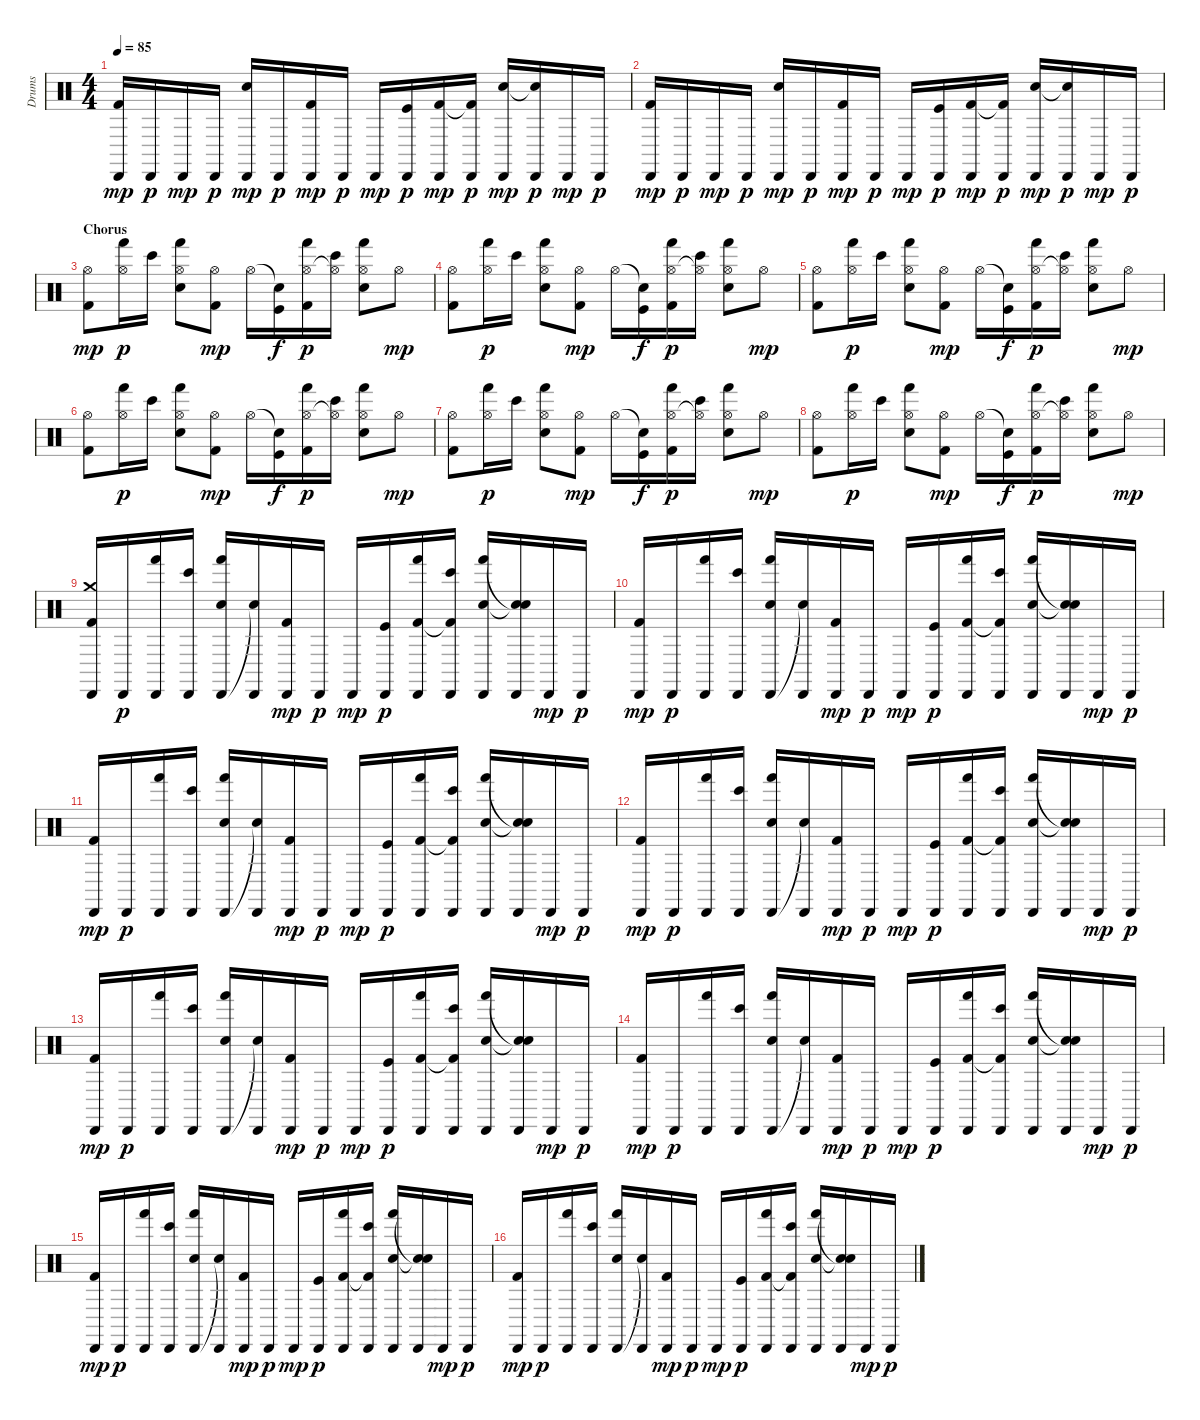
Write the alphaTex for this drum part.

\track ("Drums" "Drums") {instrument percussion}
\staff {score}
\articulation defaults
\ts (4 4)
\tempo 85
\clef neutral
\ks c
("Kick (hit) 2" "Cabasa (hit)").16{dy mp} "Cabasa (hit)".16{dy p} "Cabasa (hit)".16{dy mp} "Cabasa (hit)".16{dy p} ("Snare (hit) 2" "Cabasa (hit)").16{dy mp} "Cabasa (hit)".16{dy p} ("Kick (hit) 2" "Cabasa (hit)").16{dy mp} "Cabasa (hit)".16{dy p} "Cabasa (hit)".16{dy mp} ("Cabasa (hit)" "Kick (hit)").16{dy p} ("Kick (hit) 2" "Cabasa (hit)").16{dy mp} ("Kick (hit) 2"{t} "Cabasa (hit)").16{dy p} ("Snare (hit) 2" "Cabasa (hit)").16{dy mp} ("Snare (hit) 2"{t} "Cabasa (hit)").16{dy p} "Cabasa (hit)".16{dy mp} "Cabasa (hit)".16{dy p} |
("Kick (hit) 2" "Cabasa (hit)").16{dy mp} "Cabasa (hit)".16{dy p} "Cabasa (hit)".16{dy mp} "Cabasa (hit)".16{dy p} ("Snare (hit) 2" "Cabasa (hit)").16{dy mp} "Cabasa (hit)".16{dy p} ("Kick (hit) 2" "Cabasa (hit)").16{dy mp} "Cabasa (hit)".16{dy p} "Cabasa (hit)".16{dy mp} ("Cabasa (hit)" "Kick (hit)").16{dy p} ("Kick (hit) 2" "Cabasa (hit)").16{dy mp} ("Kick (hit) 2"{t} "Cabasa (hit)").16{dy p} ("Snare (hit) 2" "Cabasa (hit)").16{dy mp} ("Snare (hit) 2"{t} "Cabasa (hit)").16{dy p} "Cabasa (hit)".16{dy mp} "Cabasa (hit)".16{dy p} |
\section ("" "Chorus")
("Hi-Hat (open)" "Kick (hit) 2").8{dy mp} ("Hi-Hat (open)" "Hand (hit)").16{dy p} "Bongo High (hit)".16 ("Hi-Hat (open)" "Snare (hit) 2" "Hand (hit)").8 ("Hi-Hat (open)" "Kick (hit) 2").8{dy mp} "Hi-Hat (open)".16 ("Snare (hit)"{t} "Kick (hit)").16{dy f} ("Hi-Hat (open)" "Kick (hit) 2" "Hand (hit)").16{dy p} ("Hi-Hat (open)"{t} "Bongo High (hit)").16 ("Hi-Hat (open)" "Snare (hit) 2" "Hand (hit)").8 "Hi-Hat (open)".8{dy mp} |
("Hi-Hat (open)" "Kick (hit) 2").8 ("Hi-Hat (open)" "Hand (hit)").16{dy p} "Bongo High (hit)".16 ("Hi-Hat (open)" "Snare (hit) 2" "Hand (hit)").8 ("Hi-Hat (open)" "Kick (hit) 2").8{dy mp} "Hi-Hat (open)".16 ("Snare (hit)"{t} "Kick (hit)").16{dy f} ("Hi-Hat (open)" "Kick (hit) 2" "Hand (hit)").16{dy p} ("Hi-Hat (open)"{t} "Bongo High (hit)").16 ("Hi-Hat (open)" "Snare (hit) 2" "Hand (hit)").8 "Hi-Hat (open)".8{dy mp} |
("Hi-Hat (open)" "Kick (hit) 2").8 ("Hi-Hat (open)" "Hand (hit)").16{dy p} "Bongo High (hit)".16 ("Hi-Hat (open)" "Snare (hit) 2" "Hand (hit)").8 ("Hi-Hat (open)" "Kick (hit) 2").8{dy mp} "Hi-Hat (open)".16 ("Snare (hit)"{t} "Kick (hit)").16{dy f} ("Hi-Hat (open)" "Kick (hit) 2" "Hand (hit)").16{dy p} ("Hi-Hat (open)"{t} "Bongo High (hit)").16 ("Hi-Hat (open)" "Snare (hit) 2" "Hand (hit)").8 "Hi-Hat (open)".8{dy mp} |
("Hi-Hat (open)" "Kick (hit) 2").8 ("Hi-Hat (open)" "Hand (hit)").16{dy p} "Bongo High (hit)".16 ("Hi-Hat (open)" "Snare (hit) 2" "Hand (hit)").8 ("Hi-Hat (open)" "Kick (hit) 2").8{dy mp} "Hi-Hat (open)".16 ("Snare (hit)"{t} "Kick (hit)").16{dy f} ("Hi-Hat (open)" "Kick (hit) 2" "Hand (hit)").16{dy p} ("Hi-Hat (open)"{t} "Bongo High (hit)").16 ("Hi-Hat (open)" "Snare (hit) 2" "Hand (hit)").8 "Hi-Hat (open)".8{dy mp} |
("Hi-Hat (open)" "Kick (hit) 2").8 ("Hi-Hat (open)" "Hand (hit)").16{dy p} "Bongo High (hit)".16 ("Hi-Hat (open)" "Snare (hit) 2" "Hand (hit)").8 ("Hi-Hat (open)" "Kick (hit) 2").8{dy mp} "Hi-Hat (open)".16 ("Snare (hit)"{t} "Kick (hit)").16{dy f} ("Hi-Hat (open)" "Kick (hit) 2" "Hand (hit)").16{dy p} ("Hi-Hat (open)"{t} "Bongo High (hit)").16 ("Hi-Hat (open)" "Snare (hit) 2" "Hand (hit)").8 "Hi-Hat (open)".8{dy mp} |
("Hi-Hat (open)" "Kick (hit) 2").8 ("Hi-Hat (open)" "Hand (hit)").16{dy p} "Bongo High (hit)".16 ("Hi-Hat (open)" "Snare (hit) 2" "Hand (hit)").8 ("Hi-Hat (open)" "Kick (hit) 2").8{dy mp} "Hi-Hat (open)".16 ("Snare (hit)"{t} "Kick (hit)").16{dy f} ("Hi-Hat (open)" "Kick (hit) 2" "Hand (hit)").16{dy p} ("Hi-Hat (open)"{t} "Bongo High (hit)").16 ("Hi-Hat (open)" "Snare (hit) 2" "Hand (hit)").8 "Hi-Hat (open)".8{dy mp} |
("Kick (hit) 2" "Cabasa (hit)" "Crash medium (hit)").16 "Cabasa (hit)".16{dy p} ("Cabasa (hit)" "Hand (hit)").16 ("Cabasa (hit)" "Bongo High (hit)").16 ("Snare (hit) 2" "Cabasa (hit)" "Hand (hit)").16 ("Cabasa (hit)" "Snare (hit)"{t}).16 ("Kick (hit) 2" "Cabasa (hit)").16{dy mp} "Cabasa (hit)".16{dy p} "Cabasa (hit)".16{dy mp} ("Cabasa (hit)" "Kick (hit)").16{dy p} ("Kick (hit) 2" "Cabasa (hit)" "Hand (hit)").16 ("Kick (hit) 2"{t} "Cabasa (hit)" "Bongo High (hit)").16 ("Snare (hit) 2" "Cabasa (hit)" "Hand (hit)").16 ("Snare (hit) 2"{t} "Cabasa (hit)" "Snare (hit)"{t}).16 "Cabasa (hit)".16{dy mp} "Cabasa (hit)".16{dy p} |
("Kick (hit) 2" "Cabasa (hit)").16{dy mp} "Cabasa (hit)".16{dy p} ("Cabasa (hit)" "Hand (hit)").16 ("Cabasa (hit)" "Bongo High (hit)").16 ("Snare (hit) 2" "Cabasa (hit)" "Hand (hit)").16 ("Cabasa (hit)" "Snare (hit)"{t}).16 ("Kick (hit) 2" "Cabasa (hit)").16{dy mp} "Cabasa (hit)".16{dy p} "Cabasa (hit)".16{dy mp} ("Cabasa (hit)" "Kick (hit)").16{dy p} ("Kick (hit) 2" "Cabasa (hit)" "Hand (hit)").16 ("Kick (hit) 2"{t} "Cabasa (hit)" "Bongo High (hit)").16 ("Snare (hit) 2" "Cabasa (hit)" "Hand (hit)").16 ("Snare (hit) 2"{t} "Cabasa (hit)" "Snare (hit)"{t}).16 "Cabasa (hit)".16{dy mp} "Cabasa (hit)".16{dy p} |
("Kick (hit) 2" "Cabasa (hit)").16{dy mp} "Cabasa (hit)".16{dy p} ("Cabasa (hit)" "Hand (hit)").16 ("Cabasa (hit)" "Bongo High (hit)").16 ("Snare (hit) 2" "Cabasa (hit)" "Hand (hit)").16 ("Cabasa (hit)" "Snare (hit)"{t}).16 ("Kick (hit) 2" "Cabasa (hit)").16{dy mp} "Cabasa (hit)".16{dy p} "Cabasa (hit)".16{dy mp} ("Cabasa (hit)" "Kick (hit)").16{dy p} ("Kick (hit) 2" "Cabasa (hit)" "Hand (hit)").16 ("Kick (hit) 2"{t} "Cabasa (hit)" "Bongo High (hit)").16 ("Snare (hit) 2" "Cabasa (hit)" "Hand (hit)").16 ("Snare (hit) 2"{t} "Cabasa (hit)" "Snare (hit)"{t}).16 "Cabasa (hit)".16{dy mp} "Cabasa (hit)".16{dy p} |
("Kick (hit) 2" "Cabasa (hit)").16{dy mp} "Cabasa (hit)".16{dy p} ("Cabasa (hit)" "Hand (hit)").16 ("Cabasa (hit)" "Bongo High (hit)").16 ("Snare (hit) 2" "Cabasa (hit)" "Hand (hit)").16 ("Cabasa (hit)" "Snare (hit)"{t}).16 ("Kick (hit) 2" "Cabasa (hit)").16{dy mp} "Cabasa (hit)".16{dy p} "Cabasa (hit)".16{dy mp} ("Cabasa (hit)" "Kick (hit)").16{dy p} ("Kick (hit) 2" "Cabasa (hit)" "Hand (hit)").16 ("Kick (hit) 2"{t} "Cabasa (hit)" "Bongo High (hit)").16 ("Snare (hit) 2" "Cabasa (hit)" "Hand (hit)").16 ("Snare (hit) 2"{t} "Cabasa (hit)" "Snare (hit)"{t}).16 "Cabasa (hit)".16{dy mp} "Cabasa (hit)".16{dy p} |
("Kick (hit) 2" "Cabasa (hit)").16{dy mp} "Cabasa (hit)".16{dy p} ("Cabasa (hit)" "Hand (hit)").16 ("Cabasa (hit)" "Bongo High (hit)").16 ("Snare (hit) 2" "Cabasa (hit)" "Hand (hit)").16 ("Cabasa (hit)" "Snare (hit)"{t}).16 ("Kick (hit) 2" "Cabasa (hit)").16{dy mp} "Cabasa (hit)".16{dy p} "Cabasa (hit)".16{dy mp} ("Cabasa (hit)" "Kick (hit)").16{dy p} ("Kick (hit) 2" "Cabasa (hit)" "Hand (hit)").16 ("Kick (hit) 2"{t} "Cabasa (hit)" "Bongo High (hit)").16 ("Snare (hit) 2" "Cabasa (hit)" "Hand (hit)").16 ("Snare (hit) 2"{t} "Cabasa (hit)" "Snare (hit)"{t}).16 "Cabasa (hit)".16{dy mp} "Cabasa (hit)".16{dy p} |
("Kick (hit) 2" "Cabasa (hit)").16{dy mp} "Cabasa (hit)".16{dy p} ("Cabasa (hit)" "Hand (hit)").16 ("Cabasa (hit)" "Bongo High (hit)").16 ("Snare (hit) 2" "Cabasa (hit)" "Hand (hit)").16 ("Cabasa (hit)" "Snare (hit)"{t}).16 ("Kick (hit) 2" "Cabasa (hit)").16{dy mp} "Cabasa (hit)".16{dy p} "Cabasa (hit)".16{dy mp} ("Cabasa (hit)" "Kick (hit)").16{dy p} ("Kick (hit) 2" "Cabasa (hit)" "Hand (hit)").16 ("Kick (hit) 2"{t} "Cabasa (hit)" "Bongo High (hit)").16 ("Snare (hit) 2" "Cabasa (hit)" "Hand (hit)").16 ("Snare (hit) 2"{t} "Cabasa (hit)" "Snare (hit)"{t}).16 "Cabasa (hit)".16{dy mp} "Cabasa (hit)".16{dy p} |
("Kick (hit) 2" "Cabasa (hit)").16{dy mp} "Cabasa (hit)".16{dy p} ("Cabasa (hit)" "Hand (hit)").16 ("Cabasa (hit)" "Bongo High (hit)").16 ("Snare (hit) 2" "Cabasa (hit)" "Hand (hit)").16 ("Cabasa (hit)" "Snare (hit)"{t}).16 ("Kick (hit) 2" "Cabasa (hit)").16{dy mp} "Cabasa (hit)".16{dy p} "Cabasa (hit)".16{dy mp} ("Cabasa (hit)" "Kick (hit)").16{dy p} ("Kick (hit) 2" "Cabasa (hit)" "Hand (hit)").16 ("Kick (hit) 2"{t} "Cabasa (hit)" "Bongo High (hit)").16 ("Snare (hit) 2" "Cabasa (hit)" "Hand (hit)").16 ("Snare (hit) 2"{t} "Cabasa (hit)" "Snare (hit)"{t}).16 "Cabasa (hit)".16{dy mp} "Cabasa (hit)".16{dy p} |
("Kick (hit) 2" "Cabasa (hit)").16{dy mp} "Cabasa (hit)".16{dy p} ("Cabasa (hit)" "Hand (hit)").16 ("Cabasa (hit)" "Bongo High (hit)").16 ("Snare (hit) 2" "Cabasa (hit)" "Hand (hit)").16 ("Cabasa (hit)" "Snare (hit)"{t}).16 ("Kick (hit) 2" "Cabasa (hit)").16{dy mp} "Cabasa (hit)".16{dy p} "Cabasa (hit)".16{dy mp} ("Cabasa (hit)" "Kick (hit)").16{dy p} ("Kick (hit) 2" "Cabasa (hit)" "Hand (hit)").16 ("Kick (hit) 2"{t} "Cabasa (hit)" "Bongo High (hit)").16 ("Snare (hit) 2" "Cabasa (hit)" "Hand (hit)").16 ("Snare (hit) 2"{t} "Cabasa (hit)" "Snare (hit)"{t}).16 "Cabasa (hit)".16{dy mp} "Cabasa (hit)".16{dy p}
